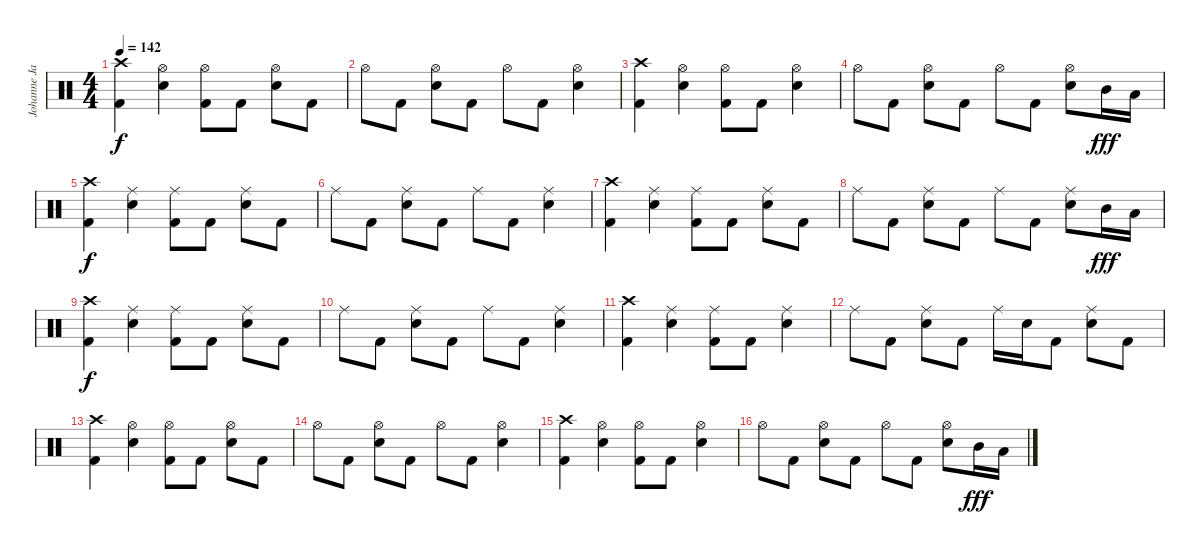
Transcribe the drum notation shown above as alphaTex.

\track ("Johanne James" "Johanne Ja") {instrument percussion}
\staff {score}
\articulation defaults
\ts (4 4)
\tempo 142
\clef neutral
\ks c
("Crash high (hit)" "Kick (hit) 2").4{dy f} ("Hi-Hat (open)" "Snare (hit) 2").4 ("Hi-Hat (open)" "Kick (hit) 2").8 "Kick (hit) 2".8 ("Hi-Hat (open)" "Snare (hit) 2").8 "Kick (hit) 2".8 |
"Hi-Hat (open)".8 "Kick (hit) 2".8 ("Hi-Hat (open)" "Snare (hit) 2").8 "Kick (hit) 2".8 "Hi-Hat (open)".8 "Kick (hit) 2".8 ("Hi-Hat (open)" "Snare (hit) 2").4 |
("Crash high (hit)" "Kick (hit) 2").4 ("Hi-Hat (open)" "Snare (hit) 2").4 ("Hi-Hat (open)" "Kick (hit) 2").8 "Kick (hit) 2".8 ("Hi-Hat (open)" "Snare (hit) 2").4 |
"Hi-Hat (open)".8 "Kick (hit) 2".8 ("Hi-Hat (open)" "Snare (hit) 2").8 "Kick (hit) 2".8 "Hi-Hat (open)".8 "Kick (hit) 2".8 ("Hi-Hat (open)" "Snare (hit) 2").8 "Mid Tom (hit)".16{dy fff} "Low Tom (hit)".16 |
("Crash high (hit)" "Kick (hit) 2").4{dy f} ("Ride (middle)" "Snare (hit) 2").4 ("Ride (middle)" "Kick (hit) 2").8 "Kick (hit) 2".8 ("Ride (middle)" "Snare (hit) 2").8 "Kick (hit) 2".8 |
"Ride (middle)".8 "Kick (hit) 2".8 ("Ride (middle)" "Snare (hit) 2").8 "Kick (hit) 2".8 "Ride (middle)".8 "Kick (hit) 2".8 ("Ride (middle)" "Snare (hit) 2").4 |
("Crash high (hit)" "Kick (hit) 2").4 ("Ride (middle)" "Snare (hit) 2").4 ("Ride (middle)" "Kick (hit) 2").8 "Kick (hit) 2".8 ("Ride (middle)" "Snare (hit) 2").8 "Kick (hit) 2".8 |
"Ride (middle)".8 "Kick (hit) 2".8 ("Ride (middle)" "Snare (hit) 2").8 "Kick (hit) 2".8 "Ride (middle)".8 "Kick (hit) 2".8 ("Ride (middle)" "Snare (hit) 2").8 "Mid Tom (hit)".16{dy fff} "Low Tom (hit)".16 |
("Crash high (hit)" "Kick (hit) 2").4{dy f} ("Ride (middle)" "Snare (hit) 2").4 ("Ride (middle)" "Kick (hit) 2").8 "Kick (hit) 2".8 ("Ride (middle)" "Snare (hit) 2").8 "Kick (hit) 2".8 |
"Ride (middle)".8 "Kick (hit) 2".8 ("Ride (middle)" "Snare (hit) 2").8 "Kick (hit) 2".8 "Ride (middle)".8 "Kick (hit) 2".8 ("Ride (middle)" "Snare (hit) 2").4 |
("Crash high (hit)" "Kick (hit) 2").4 ("Ride (middle)" "Snare (hit) 2").4 ("Ride (middle)" "Kick (hit) 2").8 "Kick (hit) 2".8 ("Ride (middle)" "Snare (hit) 2").4 |
"Ride (middle)".8 "Kick (hit) 2".8 ("Ride (middle)" "Snare (hit) 2").8 "Kick (hit) 2".8 "Ride (middle)".16 "Snare (hit) 2".16 "Kick (hit) 2".8 ("Ride (middle)" "Snare (hit) 2").8 "Kick (hit) 2".8 |
("Crash high (hit)" "Kick (hit) 2").4 ("Hi-Hat (open)" "Snare (hit) 2").4 ("Hi-Hat (open)" "Kick (hit) 2").8 "Kick (hit) 2".8 ("Hi-Hat (open)" "Snare (hit) 2").8 "Kick (hit) 2".8 |
"Hi-Hat (open)".8 "Kick (hit) 2".8 ("Hi-Hat (open)" "Snare (hit) 2").8 "Kick (hit) 2".8 "Hi-Hat (open)".8 "Kick (hit) 2".8 ("Hi-Hat (open)" "Snare (hit) 2").4 |
("Crash high (hit)" "Kick (hit) 2").4 ("Hi-Hat (open)" "Snare (hit) 2").4 ("Hi-Hat (open)" "Kick (hit) 2").8 "Kick (hit) 2".8 ("Hi-Hat (open)" "Snare (hit) 2").4 |
"Hi-Hat (open)".8 "Kick (hit) 2".8 ("Hi-Hat (open)" "Snare (hit) 2").8 "Kick (hit) 2".8 "Hi-Hat (open)".8 "Kick (hit) 2".8 ("Hi-Hat (open)" "Snare (hit) 2").8 "Mid Tom (hit)".16{dy fff} "Low Tom (hit)".16
